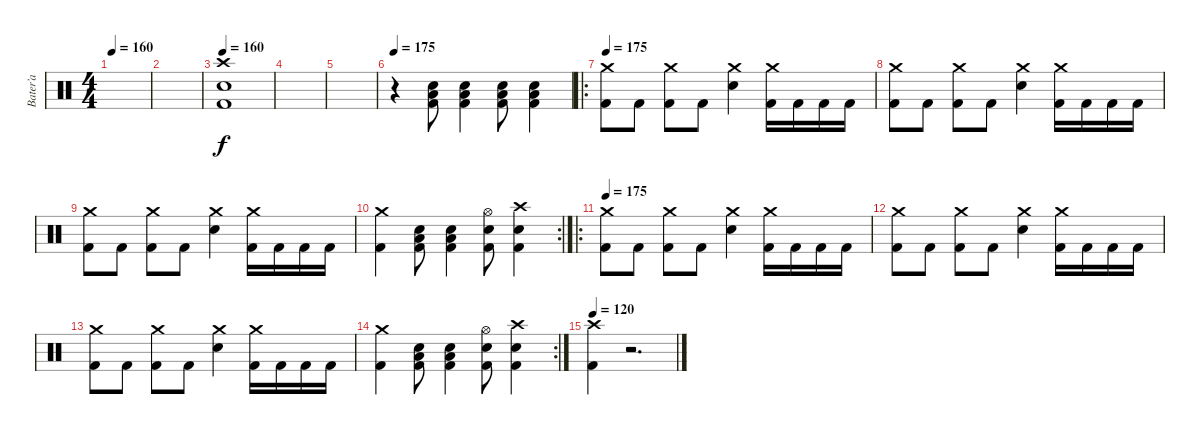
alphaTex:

\track ("Bater’a" "Bater’a") {instrument percussion}
\staff {score}
\articulation defaults
\ts (4 4)
\tempo 160
\clef neutral
\ks c
|
|
\tempo 160
("Crash high (hit)" "Electric Snare (hit)" "Kick (hit) 2").1 |
|
|
\tempo 175
r.4 ("Electric Snare (hit)" "Low Floor Tom (hit)" "Kick (hit) 2").8 ("Electric Snare (hit)" "Low Floor Tom (hit)" "Kick (hit) 2").4 ("Electric Snare (hit)" "Low Floor Tom (hit)" "Kick (hit) 2").8 ("Electric Snare (hit)" "Low Floor Tom (hit)" "Kick (hit) 2").4 |
\ro
\tempo 175
("Crash medium (hit)" "Kick (hit) 2").8 "Kick (hit) 2".8 ("Crash medium (hit)" "Kick (hit) 2").8 "Kick (hit) 2".8 ("Crash medium (hit)" "Electric Snare (hit)").4 ("Crash medium (hit)" "Kick (hit) 2").16 "Kick (hit) 2".16 "Kick (hit) 2".16 "Kick (hit) 2".16 |
("Crash medium (hit)" "Kick (hit) 2").8 "Kick (hit) 2".8 ("Crash medium (hit)" "Kick (hit) 2").8 "Kick (hit) 2".8 ("Crash medium (hit)" "Electric Snare (hit)").4 ("Crash medium (hit)" "Kick (hit) 2").16 "Kick (hit) 2".16 "Kick (hit) 2".16 "Kick (hit) 2".16 |
("Crash medium (hit)" "Kick (hit) 2").8 "Kick (hit) 2".8 ("Crash medium (hit)" "Kick (hit) 2").8 "Kick (hit) 2".8 ("Crash medium (hit)" "Electric Snare (hit)").4 ("Crash medium (hit)" "Kick (hit) 2").16 "Kick (hit) 2".16 "Kick (hit) 2".16 "Kick (hit) 2".16 |
\rc 2
("Crash medium (hit)" "Kick (hit) 2").4 ("Electric Snare (hit)" "Low Floor Tom (hit)" "Kick (hit) 2").8 ("Electric Snare (hit)" "Low Floor Tom (hit)" "Kick (hit) 2").4 ("Hi-Hat (open)" "Electric Snare (hit)" "Kick (hit) 2").8 ("Crash high (hit)" "Electric Snare (hit)" "Kick (hit) 2").4 |
\ro
\tempo 175
("Crash medium (hit)" "Kick (hit) 2").8 "Kick (hit) 2".8 ("Crash medium (hit)" "Kick (hit) 2").8 "Kick (hit) 2".8 ("Crash medium (hit)" "Electric Snare (hit)").4 ("Crash medium (hit)" "Kick (hit) 2").16 "Kick (hit) 2".16 "Kick (hit) 2".16 "Kick (hit) 2".16 |
("Crash medium (hit)" "Kick (hit) 2").8 "Kick (hit) 2".8 ("Crash medium (hit)" "Kick (hit) 2").8 "Kick (hit) 2".8 ("Crash medium (hit)" "Electric Snare (hit)").4 ("Crash medium (hit)" "Kick (hit) 2").16 "Kick (hit) 2".16 "Kick (hit) 2".16 "Kick (hit) 2".16 |
("Crash medium (hit)" "Kick (hit) 2").8 "Kick (hit) 2".8 ("Crash medium (hit)" "Kick (hit) 2").8 "Kick (hit) 2".8 ("Crash medium (hit)" "Electric Snare (hit)").4 ("Crash medium (hit)" "Kick (hit) 2").16 "Kick (hit) 2".16 "Kick (hit) 2".16 "Kick (hit) 2".16 |
\rc 2
("Crash medium (hit)" "Kick (hit) 2").4 ("Electric Snare (hit)" "Low Floor Tom (hit)" "Kick (hit) 2").8 ("Electric Snare (hit)" "Low Floor Tom (hit)" "Kick (hit) 2").4 ("Hi-Hat (open)" "Electric Snare (hit)" "Kick (hit) 2").8 ("Crash high (hit)" "Electric Snare (hit)" "Kick (hit) 2").4 |
\tempo 120
("Crash high (hit)" "Kick (hit) 2").4 r.2{d}
